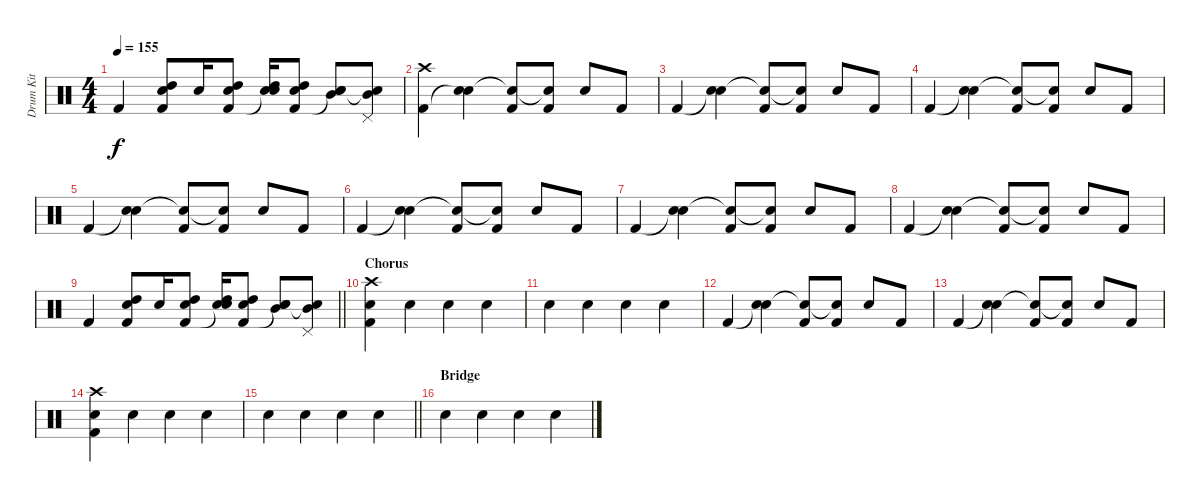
\track ("Drum Kit" "Drum Kit") {instrument percussion}
\staff {score}
\articulation defaults
\ts (4 4)
\tempo 155
\clef neutral
\ks c "Kick (hit) 2".4{dy f}
("Kick (hit) 2" "High Tom (hit)" "Snare (hit) 2").8 "Snare (hit) 2".16 ("Kick (hit) 2" "High Tom (hit)" "Snare (hit) 2").8 ("Snare (hit)"{t} "High Tom (hit)" "Snare (hit) 2").16 ("Kick (hit) 2" "High Tom (hit)" "Snare (hit) 2").8 ("Snare (hit)"{t} "Mid Tom (hit)" "Snare (hit) 2").8 ("Snare (hit)"{t} "Mid Tom (hit)" "Pedal Hi-Hat (hit)").8 |
("Kick (hit) 2" "Crash high (hit)").4 ("Snare (hit)"{t} "Snare (hit) 2").4 ("Kick (hit) 2" "Snare (hit)"{t}).8 ("Kick (hit) 2" "Snare (hit)"{t}).8 "Snare (hit) 2".8 "Kick (hit) 2".8 |
"Kick (hit) 2".4 ("Snare (hit)"{t} "Snare (hit) 2").4 ("Kick (hit) 2" "Snare (hit)"{t}).8 ("Kick (hit) 2" "Snare (hit)"{t}).8 "Snare (hit) 2".8 "Kick (hit) 2".8 |
"Kick (hit) 2".4 ("Snare (hit)"{t} "Snare (hit) 2").4 ("Kick (hit) 2" "Snare (hit)"{t}).8 ("Kick (hit) 2" "Snare (hit)"{t}).8 "Snare (hit) 2".8 "Kick (hit) 2".8 |
"Kick (hit) 2".4 ("Snare (hit)"{t} "Snare (hit) 2").4 ("Kick (hit) 2" "Snare (hit)"{t}).8 ("Kick (hit) 2" "Snare (hit)"{t}).8 "Snare (hit) 2".8 "Kick (hit) 2".8 |
"Kick (hit) 2".4 ("Snare (hit)"{t} "Snare (hit) 2").4 ("Kick (hit) 2" "Snare (hit)"{t}).8 ("Kick (hit) 2" "Snare (hit)"{t}).8 "Snare (hit) 2".8 "Kick (hit) 2".8 |
"Kick (hit) 2".4 ("Snare (hit)"{t} "Snare (hit) 2").4 ("Kick (hit) 2" "Snare (hit)"{t}).8 ("Kick (hit) 2" "Snare (hit)"{t}).8 "Snare (hit) 2".8 "Kick (hit) 2".8 |
"Kick (hit) 2".4 ("Snare (hit)"{t} "Snare (hit) 2").4 ("Kick (hit) 2" "Snare (hit)"{t}).8 ("Kick (hit) 2" "Snare (hit)"{t}).8 "Snare (hit) 2".8 "Kick (hit) 2".8 |
\barLineRight lightlight "Kick (hit) 2".4
("Kick (hit) 2" "High Tom (hit)" "Snare (hit) 2").8 "Snare (hit) 2".16 ("Kick (hit) 2" "High Tom (hit)" "Snare (hit) 2").8 ("Snare (hit)"{t} "High Tom (hit)" "Snare (hit) 2").16 ("Kick (hit) 2" "High Tom (hit)" "Snare (hit) 2").8 ("Snare (hit)"{t} "Mid Tom (hit)" "Snare (hit) 2").8 ("Snare (hit)"{t} "Mid Tom (hit)" "Pedal Hi-Hat (hit)").8 |
\section ("" "Chorus")
("Crash high (hit)" "Kick (hit) 2" "Snare (hit) 2").4 "Snare (hit) 2".4 "Snare (hit) 2".4 "Snare (hit) 2".4 |
"Snare (hit) 2".4 "Snare (hit) 2".4 "Snare (hit) 2".4 "Snare (hit) 2".4 |
"Kick (hit) 2".4 ("Snare (hit)"{t} "Snare (hit) 2").4 ("Kick (hit) 2" "Snare (hit)"{t}).8 ("Kick (hit) 2" "Snare (hit)"{t}).8 "Snare (hit) 2".8 "Kick (hit) 2".8 |
"Kick (hit) 2".4 ("Snare (hit)"{t} "Snare (hit) 2").4 ("Kick (hit) 2" "Snare (hit)"{t}).8 ("Kick (hit) 2" "Snare (hit)"{t}).8 "Snare (hit) 2".8 "Kick (hit) 2".8 |
("Crash high (hit)" "Kick (hit) 2" "Snare (hit) 2").4 "Snare (hit) 2".4 "Snare (hit) 2".4 "Snare (hit) 2".4 |
\barLineRight lightlight "Snare (hit) 2".4 "Snare (hit) 2".4 "Snare (hit) 2".4 "Snare (hit) 2".4
|
\section ("" "Bridge")
"Snare (hit) 2".4 "Snare (hit) 2".4 "Snare (hit) 2".4 "Snare (hit) 2".4
